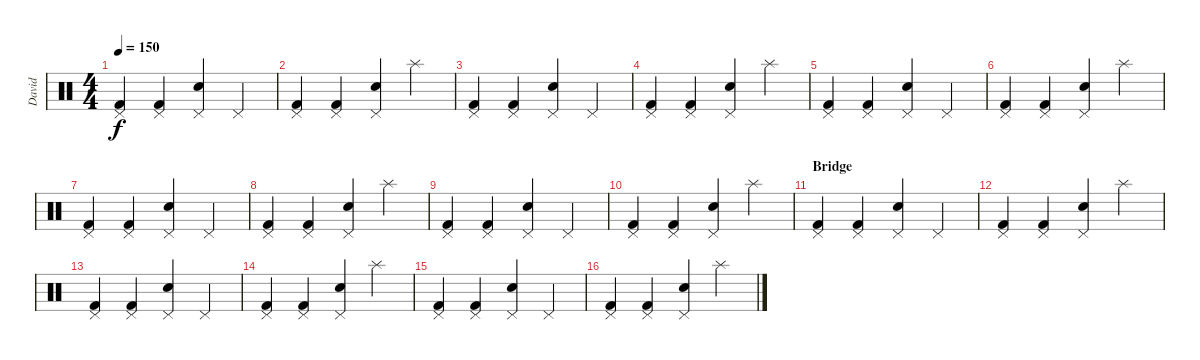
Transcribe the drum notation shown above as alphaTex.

\track ("David" "David") {instrument percussion}
\staff {score}
\articulation defaults
\ts (4 4)
\tempo 150
\clef neutral
\ks c
("Pedal Hi-Hat (hit)" "Kick (hit) 2").4{dy f} ("Pedal Hi-Hat (hit)" "Kick (hit) 2").4 ("Pedal Hi-Hat (hit)" "Hand Clap (hit)").4 "Pedal Hi-Hat (hit)".4 |
("Pedal Hi-Hat (hit)" "Kick (hit) 2").4 ("Pedal Hi-Hat (hit)" "Kick (hit) 2").4 ("Pedal Hi-Hat (hit)" "Hand Clap (hit)").4 "Splash (hit)".4 |
("Pedal Hi-Hat (hit)" "Kick (hit) 2").4 ("Pedal Hi-Hat (hit)" "Kick (hit) 2").4 ("Pedal Hi-Hat (hit)" "Hand Clap (hit)").4 "Pedal Hi-Hat (hit)".4 |
("Pedal Hi-Hat (hit)" "Kick (hit) 2").4 ("Pedal Hi-Hat (hit)" "Kick (hit) 2").4 ("Pedal Hi-Hat (hit)" "Hand Clap (hit)").4 "Splash (hit)".4 |
("Pedal Hi-Hat (hit)" "Kick (hit) 2").4 ("Pedal Hi-Hat (hit)" "Kick (hit) 2").4 ("Pedal Hi-Hat (hit)" "Hand Clap (hit)").4 "Pedal Hi-Hat (hit)".4 |
("Pedal Hi-Hat (hit)" "Kick (hit) 2").4 ("Pedal Hi-Hat (hit)" "Kick (hit) 2").4 ("Pedal Hi-Hat (hit)" "Hand Clap (hit)").4 "Splash (hit)".4 |
("Pedal Hi-Hat (hit)" "Kick (hit) 2").4 ("Pedal Hi-Hat (hit)" "Kick (hit) 2").4 ("Pedal Hi-Hat (hit)" "Hand Clap (hit)").4 "Pedal Hi-Hat (hit)".4 |
("Pedal Hi-Hat (hit)" "Kick (hit) 2").4 ("Pedal Hi-Hat (hit)" "Kick (hit) 2").4 ("Pedal Hi-Hat (hit)" "Hand Clap (hit)").4 "Splash (hit)".4 |
("Pedal Hi-Hat (hit)" "Kick (hit) 2").4 ("Pedal Hi-Hat (hit)" "Kick (hit) 2").4 ("Pedal Hi-Hat (hit)" "Hand Clap (hit)").4 "Pedal Hi-Hat (hit)".4 |
("Pedal Hi-Hat (hit)" "Kick (hit) 2").4 ("Pedal Hi-Hat (hit)" "Kick (hit) 2").4 ("Pedal Hi-Hat (hit)" "Hand Clap (hit)").4 "Splash (hit)".4 |
\section ("" "Bridge")
("Pedal Hi-Hat (hit)" "Kick (hit) 2").4 ("Pedal Hi-Hat (hit)" "Kick (hit) 2").4 ("Pedal Hi-Hat (hit)" "Hand Clap (hit)").4 "Pedal Hi-Hat (hit)".4 |
("Pedal Hi-Hat (hit)" "Kick (hit) 2").4 ("Pedal Hi-Hat (hit)" "Kick (hit) 2").4 ("Pedal Hi-Hat (hit)" "Hand Clap (hit)").4 "Splash (hit)".4 |
("Pedal Hi-Hat (hit)" "Kick (hit) 2").4 ("Pedal Hi-Hat (hit)" "Kick (hit) 2").4 ("Pedal Hi-Hat (hit)" "Hand Clap (hit)").4 "Pedal Hi-Hat (hit)".4 |
("Pedal Hi-Hat (hit)" "Kick (hit) 2").4 ("Pedal Hi-Hat (hit)" "Kick (hit) 2").4 ("Pedal Hi-Hat (hit)" "Hand Clap (hit)").4 "Splash (hit)".4 |
("Pedal Hi-Hat (hit)" "Kick (hit) 2").4 ("Pedal Hi-Hat (hit)" "Kick (hit) 2").4 ("Pedal Hi-Hat (hit)" "Hand Clap (hit)").4 "Pedal Hi-Hat (hit)".4 |
("Pedal Hi-Hat (hit)" "Kick (hit) 2").4 ("Pedal Hi-Hat (hit)" "Kick (hit) 2").4 ("Pedal Hi-Hat (hit)" "Hand Clap (hit)").4 "Splash (hit)".4
